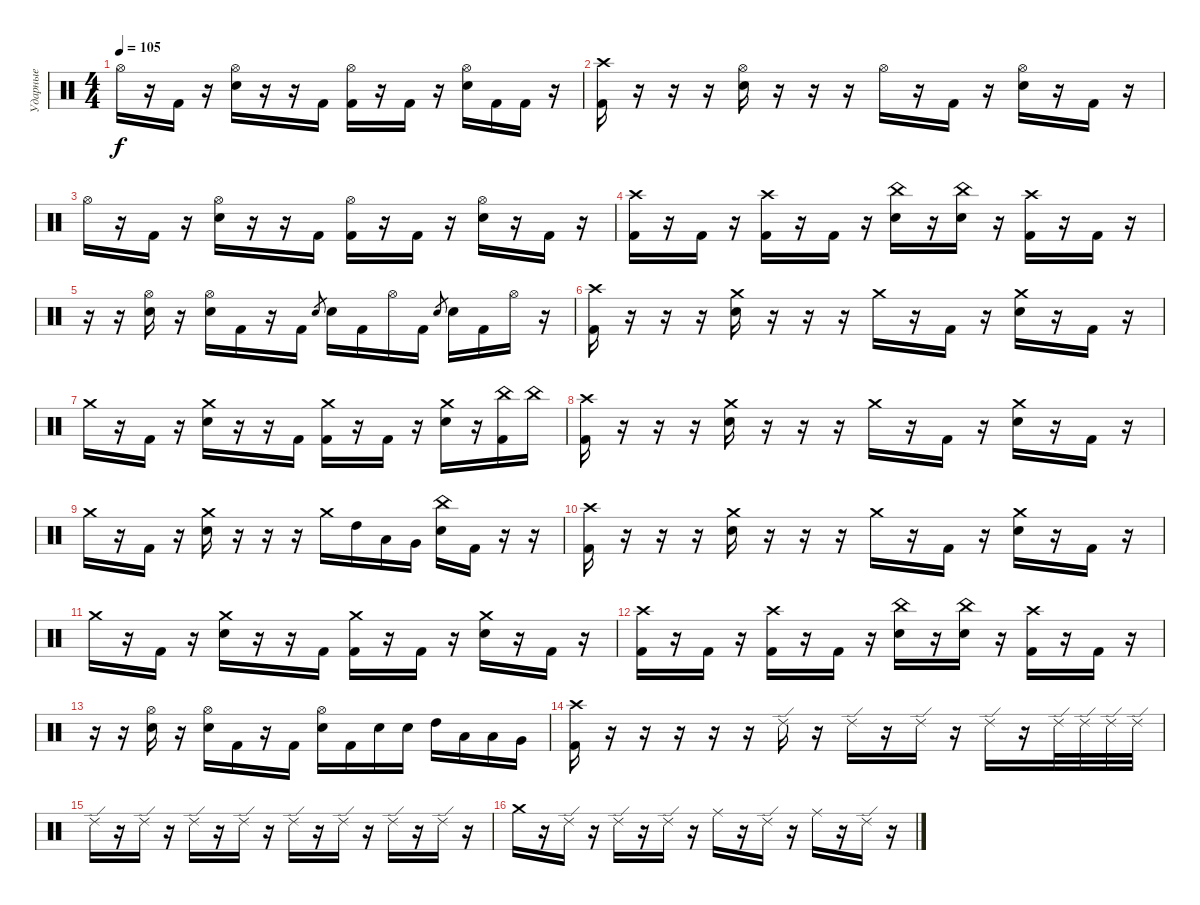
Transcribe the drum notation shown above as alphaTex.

\track ("Ударные" "Ударные") {instrument percussion}
\staff {score}
\articulation defaults
\ts (4 4)
\tempo 105
\clef neutral
\ks c "Hi-Hat (open)".16{dy f}
r.16 "Kick (hit) 2".16 r.16 ("Hi-Hat (open)" "Electric Snare (hit)").16 r.16 r.16 "Kick (hit) 2".16 ("Hi-Hat (open)" "Kick (hit) 2").16 r.16 "Kick (hit) 2".16 r.16 ("Hi-Hat (open)" "Electric Snare (hit)").16 "Kick (hit) 2".16 "Kick (hit) 2".16 r.16 |
("Crash high (hit)" "Kick (hit) 2").16 r.16 r.16 r.16 ("Hi-Hat (open)" "Electric Snare (hit)").16 r.16 r.16 r.16 "Hi-Hat (open)".16 r.16 "Kick (hit) 2".16 r.16 ("Hi-Hat (open)" "Electric Snare (hit)").16 r.16 "Kick (hit) 2".16 r.16 |
"Hi-Hat (open)".16 r.16 "Kick (hit) 2".16 r.16 ("Hi-Hat (open)" "Electric Snare (hit)").16 r.16 r.16 "Kick (hit) 2".16 ("Hi-Hat (open)" "Kick (hit) 2").16 r.16 "Kick (hit) 2".16 r.16 ("Hi-Hat (open)" "Electric Snare (hit)").16 r.16 "Kick (hit) 2".16 r.16 |
("Crash high (hit)" "Kick (hit) 2").16 r.16 "Kick (hit) 2".16 r.16 ("Crash high (hit)" "Kick (hit) 2").16 r.16 "Kick (hit) 2".16 r.16 ("China (hit)" "Electric Snare (hit)").16 r.16 ("China (hit)" "Electric Snare (hit)").16 r.16 ("Crash high (hit)" "Kick (hit) 2").16 r.16 "Kick (hit) 2".16 r.16 |
r.16 r.16 ("Hi-Hat (open)" "Electric Snare (hit)").16 r.16 ("Hi-Hat (open)" "Electric Snare (hit)").16 "Kick (hit) 2".16 r.16 "Kick (hit) 2".16 "Electric Snare (hit)".8{gr} "Electric Snare (hit)".16 "Kick (hit) 2".16 "Hi-Hat (open)".16 "Kick (hit) 2".16 "Electric Snare (hit)".8{gr} "Electric Snare (hit)".16 "Kick (hit) 2".16 "Hi-Hat (open)".16 r.16 |
("Crash high (hit)" "Kick (hit) 2").16 r.16 r.16 r.16 ("Crash medium (hit)" "Electric Snare (hit)").16 r.16 r.16 r.16 "Crash medium (hit)".16 r.16 "Kick (hit) 2".16 r.16 ("Crash medium (hit)" "Electric Snare (hit)").16 r.16 "Kick (hit) 2".16 r.16 |
"Crash medium (hit)".16 r.16 "Kick (hit) 2".16 r.16 ("Crash medium (hit)" "Electric Snare (hit)").16 r.16 r.16 "Kick (hit) 2".16 ("Crash medium (hit)" "Kick (hit) 2").16 r.16 "Kick (hit) 2".16 r.16 ("Crash medium (hit)" "Electric Snare (hit)").16 r.16 ("China (hit)" "Kick (hit) 2").16 "China (hit)".16 |
("Crash high (hit)" "Kick (hit) 2").16 r.16 r.16 r.16 ("Crash medium (hit)" "Electric Snare (hit)").16 r.16 r.16 r.16 "Crash medium (hit)".16 r.16 "Kick (hit) 2".16 r.16 ("Crash medium (hit)" "Electric Snare (hit)").16 r.16 "Kick (hit) 2".16 r.16 |
"Crash medium (hit)".16 r.16 "Kick (hit) 2".16 r.16 ("Crash medium (hit)" "Electric Snare (hit)").16 r.16 r.16 r.16 "Crash medium (hit)".16 "High Tom (hit)".16 "Low Tom (hit)".16 "Very Low Tom (hit)".16 ("China (hit)" "Electric Snare (hit)").16 "Kick (hit) 2".16 r.16 r.16 |
("Crash high (hit)" "Kick (hit) 2").16 r.16 r.16 r.16 ("Crash medium (hit)" "Electric Snare (hit)").16 r.16 r.16 r.16 "Crash medium (hit)".16 r.16 "Kick (hit) 2".16 r.16 ("Crash medium (hit)" "Electric Snare (hit)").16 r.16 "Kick (hit) 2".16 r.16 |
"Crash medium (hit)".16 r.16 "Kick (hit) 2".16 r.16 ("Crash medium (hit)" "Electric Snare (hit)").16 r.16 r.16 "Kick (hit) 2".16 ("Crash medium (hit)" "Kick (hit) 2").16 r.16 "Kick (hit) 2".16 r.16 ("Crash medium (hit)" "Electric Snare (hit)").16 r.16 "Kick (hit) 2".16 r.16 |
("Crash high (hit)" "Kick (hit) 2").16 r.16 "Kick (hit) 2".16 r.16 ("Crash high (hit)" "Kick (hit) 2").16 r.16 "Kick (hit) 2".16 r.16 ("China (hit)" "Electric Snare (hit)").16 r.16 ("China (hit)" "Electric Snare (hit)").16 r.16 ("Crash high (hit)" "Kick (hit) 2").16 r.16 "Kick (hit) 2".16 r.16 |
r.16 r.16 ("Hi-Hat (open)" "Electric Snare (hit)").16 r.16 ("Hi-Hat (open)" "Electric Snare (hit)").16 "Kick (hit) 2".16 r.16 "Kick (hit) 2".16 ("Hi-Hat (open)" "Electric Snare (hit)").16 "Kick (hit) 2".16 "Electric Snare (hit)".16 "Electric Snare (hit)".16 "High Tom (hit)".16 "Low Tom (hit)".16 "Low Tom (hit)".16 "Very Low Tom (hit)".16 |
("Crash high (hit)" "Kick (hit) 2").16 r.16 r.16 r.16 r.16 r.16 "Ride (edge) 2".16 r.16 "Ride (edge) 2".16 r.16 "Ride (edge) 2".16 r.16 "Ride (edge) 2".16 r.16 "Ride (edge) 2".32 "Ride (edge) 2".32 "Ride (edge) 2".32 "Ride (edge) 2".32 |
"Ride (edge) 2".16 r.16 "Ride (edge) 2".16 r.16 "Ride (edge) 2".16 r.16 "Ride (edge) 2".16 r.16 "Ride (edge) 2".16 r.16 "Ride (edge) 2".16 r.16 "Ride (edge) 2".16 r.16 "Ride (edge) 2".16 r.16 |
"Crash medium (hit)".16 r.16 "Ride (edge) 2".16 r.16 "Ride (edge) 2".16 r.16 "Ride (edge) 2".16 r.16 "Ride (middle)".16 r.16 "Ride (edge) 2".16 r.16 "Ride (middle)".16 r.16 "Ride (edge) 2".16 r.16
